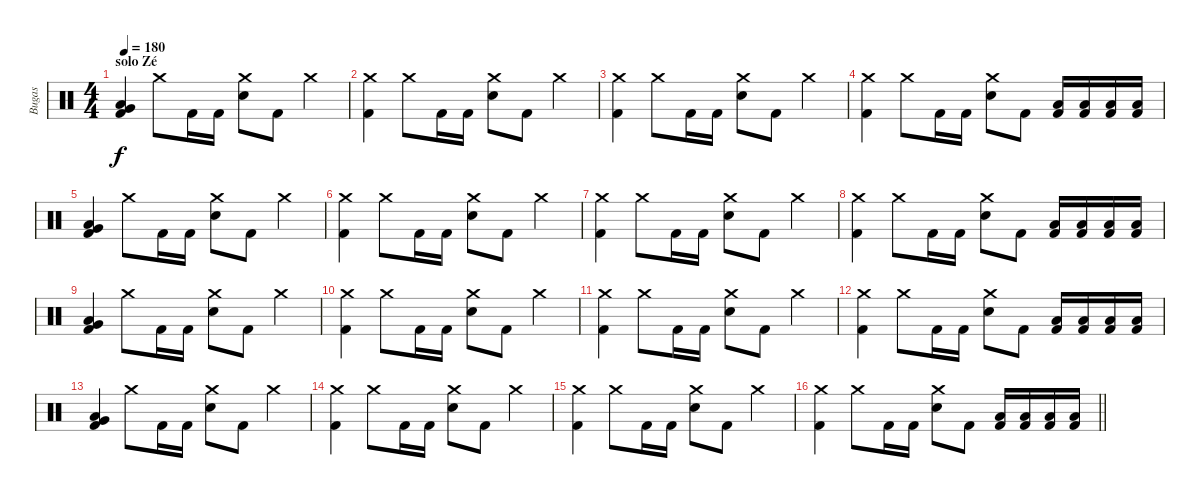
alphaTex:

\track ("Bugas" "Bugas") {instrument percussion}
\staff {score}
\articulation defaults
\ts (4 4)
\section ("" "solo Zé")
\tempo 180
\clef neutral
\ks c
("Very Low Tom (hit)" "Kick (hit) 2" "Low Tom (hit)").4{dy f} "Crash medium (hit)".8 "Kick (hit) 2".16 "Kick (hit) 2".16 ("Crash medium (hit)" "Electric Snare (hit)").8 "Kick (hit) 2".8 "Crash medium (hit)".4 |
("Crash medium (hit)" "Kick (hit) 2").4 "Crash medium (hit)".8 "Kick (hit) 2".16 "Kick (hit) 2".16 ("Crash medium (hit)" "Electric Snare (hit)").8 "Kick (hit) 2".8 "Crash medium (hit)".4 |
("Crash medium (hit)" "Kick (hit) 2").4 "Crash medium (hit)".8 "Kick (hit) 2".16 "Kick (hit) 2".16 ("Crash medium (hit)" "Electric Snare (hit)").8 "Kick (hit) 2".8 "Crash medium (hit)".4 |
("Crash medium (hit)" "Kick (hit) 2").4 "Crash medium (hit)".8 "Kick (hit) 2".16 "Kick (hit) 2".16 ("Crash medium (hit)" "Electric Snare (hit)").8 "Kick (hit) 2".8 ("Kick (hit) 2" "Low Tom (hit)").16 ("Kick (hit) 2" "Low Tom (hit)").16 ("Kick (hit) 2" "Low Tom (hit)").16 ("Kick (hit) 2" "Low Tom (hit)").16 |
("Very Low Tom (hit)" "Kick (hit) 2" "Low Tom (hit)").4 "Crash medium (hit)".8 "Kick (hit) 2".16 "Kick (hit) 2".16 ("Crash medium (hit)" "Electric Snare (hit)").8 "Kick (hit) 2".8 "Crash medium (hit)".4 |
("Crash medium (hit)" "Kick (hit) 2").4 "Crash medium (hit)".8 "Kick (hit) 2".16 "Kick (hit) 2".16 ("Crash medium (hit)" "Electric Snare (hit)").8 "Kick (hit) 2".8 "Crash medium (hit)".4 |
("Crash medium (hit)" "Kick (hit) 2").4 "Crash medium (hit)".8 "Kick (hit) 2".16 "Kick (hit) 2".16 ("Crash medium (hit)" "Electric Snare (hit)").8 "Kick (hit) 2".8 "Crash medium (hit)".4 |
("Crash medium (hit)" "Kick (hit) 2").4 "Crash medium (hit)".8 "Kick (hit) 2".16 "Kick (hit) 2".16 ("Crash medium (hit)" "Electric Snare (hit)").8 "Kick (hit) 2".8 ("Kick (hit) 2" "Low Tom (hit)").16 ("Kick (hit) 2" "Low Tom (hit)").16 ("Kick (hit) 2" "Low Tom (hit)").16 ("Kick (hit) 2" "Low Tom (hit)").16 |
("Very Low Tom (hit)" "Kick (hit) 2" "Low Tom (hit)").4 "Crash medium (hit)".8 "Kick (hit) 2".16 "Kick (hit) 2".16 ("Crash medium (hit)" "Electric Snare (hit)").8 "Kick (hit) 2".8 "Crash medium (hit)".4 |
("Crash medium (hit)" "Kick (hit) 2").4 "Crash medium (hit)".8 "Kick (hit) 2".16 "Kick (hit) 2".16 ("Crash medium (hit)" "Electric Snare (hit)").8 "Kick (hit) 2".8 "Crash medium (hit)".4 |
("Crash medium (hit)" "Kick (hit) 2").4 "Crash medium (hit)".8 "Kick (hit) 2".16 "Kick (hit) 2".16 ("Crash medium (hit)" "Electric Snare (hit)").8 "Kick (hit) 2".8 "Crash medium (hit)".4 |
("Crash medium (hit)" "Kick (hit) 2").4 "Crash medium (hit)".8 "Kick (hit) 2".16 "Kick (hit) 2".16 ("Crash medium (hit)" "Electric Snare (hit)").8 "Kick (hit) 2".8 ("Kick (hit) 2" "Low Tom (hit)").16 ("Kick (hit) 2" "Low Tom (hit)").16 ("Kick (hit) 2" "Low Tom (hit)").16 ("Kick (hit) 2" "Low Tom (hit)").16 |
("Very Low Tom (hit)" "Kick (hit) 2" "Low Tom (hit)").4 "Crash medium (hit)".8 "Kick (hit) 2".16 "Kick (hit) 2".16 ("Crash medium (hit)" "Electric Snare (hit)").8 "Kick (hit) 2".8 "Crash medium (hit)".4 |
("Crash medium (hit)" "Kick (hit) 2").4 "Crash medium (hit)".8 "Kick (hit) 2".16 "Kick (hit) 2".16 ("Crash medium (hit)" "Electric Snare (hit)").8 "Kick (hit) 2".8 "Crash medium (hit)".4 |
("Crash medium (hit)" "Kick (hit) 2").4 "Crash medium (hit)".8 "Kick (hit) 2".16 "Kick (hit) 2".16 ("Crash medium (hit)" "Electric Snare (hit)").8 "Kick (hit) 2".8 "Crash medium (hit)".4 |
\barLineRight lightlight
("Crash medium (hit)" "Kick (hit) 2").4 "Crash medium (hit)".8 "Kick (hit) 2".16 "Kick (hit) 2".16 ("Crash medium (hit)" "Electric Snare (hit)").8 "Kick (hit) 2".8 ("Kick (hit) 2" "Low Tom (hit)").16 ("Kick (hit) 2" "Low Tom (hit)").16 ("Kick (hit) 2" "Low Tom (hit)").16 ("Kick (hit) 2" "Low Tom (hit)").16
